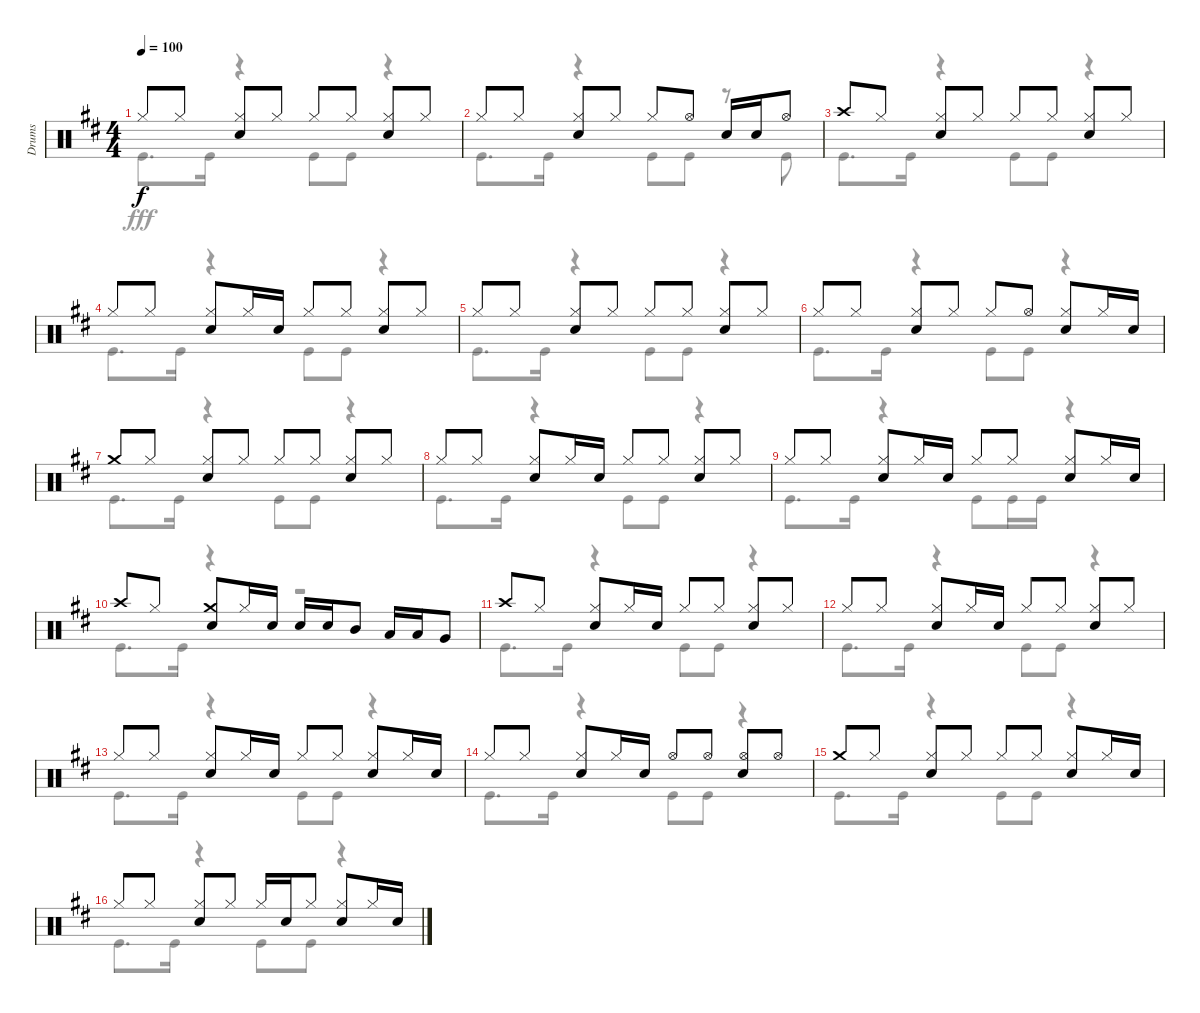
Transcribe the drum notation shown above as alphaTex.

\track ("Drums" "Drums") {instrument percussion}
\staff {score}
\articulation defaults
\voice
\ts (4 4)
\tempo 100
\clef neutral
\ks d "Hi-Hat (closed)".8{dy f} "Hi-Hat (closed)".8
("Hi-Hat (closed)" "Snare (hit) 2").8 "Hi-Hat (closed)".8 "Hi-Hat (closed)".8 "Hi-Hat (closed)".8 ("Hi-Hat (closed)" "Snare (hit) 2").8 "Hi-Hat (closed)".8 |
"Hi-Hat (closed)".8 "Hi-Hat (closed)".8 ("Hi-Hat (closed)" "Snare (hit) 2").8 "Hi-Hat (closed)".8 "Hi-Hat (closed)".8 "Hi-Hat (open)".8 "Snare (hit) 2".16 "Snare (hit) 2".16 "Hi-Hat (open)".8 |
"Crash high (hit)".8 "Hi-Hat (closed)".8 ("Hi-Hat (closed)" "Snare (hit) 2").8 "Hi-Hat (closed)".8 "Hi-Hat (closed)".8 "Hi-Hat (closed)".8 ("Hi-Hat (closed)" "Snare (hit) 2").8 "Hi-Hat (closed)".8 |
"Hi-Hat (closed)".8 "Hi-Hat (closed)".8 ("Hi-Hat (closed)" "Snare (hit) 2").8 "Hi-Hat (closed)".16 "Snare (hit) 2".16 "Hi-Hat (closed)".8 "Hi-Hat (closed)".8 ("Hi-Hat (closed)" "Snare (hit) 2").8 "Hi-Hat (closed)".8 |
"Hi-Hat (closed)".8 "Hi-Hat (closed)".8 ("Hi-Hat (closed)" "Snare (hit) 2").8 "Hi-Hat (closed)".8 "Hi-Hat (closed)".8 "Hi-Hat (closed)".8 ("Hi-Hat (closed)" "Snare (hit) 2").8 "Hi-Hat (closed)".8 |
"Hi-Hat (closed)".8 "Hi-Hat (closed)".8 ("Hi-Hat (closed)" "Snare (hit) 2").8 "Hi-Hat (closed)".8 "Hi-Hat (closed)".8 "Hi-Hat (open)".8 ("Hi-Hat (closed)" "Snare (hit) 2").8 "Hi-Hat (closed)".16 "Snare (hit) 2".16 |
"Crash medium (hit)".8 "Hi-Hat (closed)".8 ("Hi-Hat (closed)" "Snare (hit) 2").8 "Hi-Hat (closed)".8 "Hi-Hat (closed)".8 "Hi-Hat (closed)".8 ("Hi-Hat (closed)" "Snare (hit) 2").8 "Hi-Hat (closed)".8 |
"Hi-Hat (closed)".8 "Hi-Hat (closed)".8 ("Hi-Hat (closed)" "Snare (hit) 2").8 "Hi-Hat (closed)".16 "Snare (hit) 2".16 "Hi-Hat (closed)".8 "Hi-Hat (closed)".8 ("Hi-Hat (closed)" "Snare (hit) 2").8 "Hi-Hat (closed)".8 |
"Hi-Hat (closed)".8 "Hi-Hat (closed)".8 ("Hi-Hat (closed)" "Snare (hit) 2").8 "Hi-Hat (closed)".16 "Snare (hit) 2".16 "Hi-Hat (closed)".8 "Hi-Hat (closed)".8 ("Hi-Hat (closed)" "Snare (hit) 2").8 "Hi-Hat (closed)".16 "Snare (hit) 2".16 |
"Crash high (hit)".8 "Hi-Hat (closed)".8 ("Crash medium (hit)" "Snare (hit) 2").8 "Hi-Hat (closed)".16 "Snare (hit) 2".16 "Snare (hit) 2".16 "Snare (hit) 2".16 "Mid Tom (hit)".8 "Low Tom (hit)".16 "Low Tom (hit)".16 "Very Low Tom (hit)".8 |
"Crash high (hit)".8 "Hi-Hat (closed)".8 ("Hi-Hat (closed)" "Snare (hit) 2").8 "Hi-Hat (closed)".16 "Snare (hit) 2".16 "Hi-Hat (closed)".8 "Hi-Hat (closed)".8 ("Hi-Hat (closed)" "Snare (hit) 2").8 "Hi-Hat (closed)".8 |
"Hi-Hat (closed)".8 "Hi-Hat (closed)".8 ("Hi-Hat (closed)" "Snare (hit) 2").8 "Hi-Hat (closed)".16 "Snare (hit) 2".16 "Hi-Hat (closed)".8 "Hi-Hat (closed)".8 ("Hi-Hat (closed)" "Snare (hit) 2").8 "Hi-Hat (closed)".8 |
"Hi-Hat (closed)".8 "Hi-Hat (closed)".8 ("Hi-Hat (closed)" "Snare (hit) 2").8 "Hi-Hat (closed)".16 "Snare (hit) 2".16 "Hi-Hat (closed)".8 "Hi-Hat (closed)".8 ("Hi-Hat (closed)" "Snare (hit) 2").8 "Hi-Hat (closed)".16 "Snare (hit) 2".16 |
"Hi-Hat (closed)".8 "Hi-Hat (closed)".8 ("Hi-Hat (closed)" "Snare (hit) 2").8 "Hi-Hat (closed)".16 "Snare (hit) 2".16 "Hi-Hat (open)".8 "Hi-Hat (open)".8 ("Hi-Hat (open)" "Snare (hit) 2").8 "Hi-Hat (open)".8 |
"Crash medium (hit)".8 "Hi-Hat (closed)".8 ("Hi-Hat (closed)" "Snare (hit) 2").8 "Hi-Hat (closed)".8 "Hi-Hat (closed)".8 "Hi-Hat (closed)".8 ("Hi-Hat (closed)" "Snare (hit) 2").8 "Hi-Hat (closed)".16 "Snare (hit) 2".16 |
"Hi-Hat (closed)".8 "Hi-Hat (closed)".8 ("Hi-Hat (closed)" "Snare (hit) 2").8 "Hi-Hat (closed)".8 "Hi-Hat (closed)".16 "Snare (hit) 2".16 "Hi-Hat (closed)".8 ("Hi-Hat (closed)" "Snare (hit) 2").8 "Hi-Hat (closed)".16 "Snare (hit) 2".16
\voice
\clef neutral
\ottava regular
\simile none
\ks d "Kick (hit)".8{d dy fff} "Kick (hit)".16
r.4 "Kick (hit)".8 "Kick (hit)".8 r.4 |
"Kick (hit)".8{d} "Kick (hit)".16 r.4 "Kick (hit)".8 "Kick (hit)".8 r.8 "Kick (hit)".8 |
"Kick (hit)".8{d} "Kick (hit)".16 r.4 "Kick (hit)".8 "Kick (hit)".8 r.4 |
"Kick (hit)".8{d} "Kick (hit)".16 r.4 "Kick (hit)".8 "Kick (hit)".8 r.4 |
"Kick (hit)".8{d} "Kick (hit)".16 r.4 "Kick (hit)".8 "Kick (hit)".8 r.4 |
"Kick (hit)".8{d} "Kick (hit)".16 r.4 "Kick (hit)".8 "Kick (hit)".8 r.4 |
"Kick (hit)".8{d} "Kick (hit)".16 r.4 "Kick (hit)".8 "Kick (hit)".8 r.4 |
"Kick (hit)".8{d} "Kick (hit)".16 r.4 "Kick (hit)".8 "Kick (hit)".8 r.4 |
"Kick (hit)".8{d} "Kick (hit)".16 r.4 "Kick (hit)".8 "Kick (hit)".16 "Kick (hit)".16 r.4 |
"Kick (hit)".8{d} "Kick (hit)".16 r.4 r.2 |
"Kick (hit)".8{d} "Kick (hit)".16 r.4 "Kick (hit)".8 "Kick (hit)".8 r.4 |
"Kick (hit)".8{d} "Kick (hit)".16 r.4 "Kick (hit)".8 "Kick (hit)".8 r.4 |
"Kick (hit)".8{d} "Kick (hit)".16 r.4 "Kick (hit)".8 "Kick (hit)".8 r.4 |
"Kick (hit)".8{d} "Kick (hit)".16 r.4 "Kick (hit)".8 "Kick (hit)".8 r.4 |
"Kick (hit)".8{d} "Kick (hit)".16 r.4 "Kick (hit)".8 "Kick (hit)".8 r.4 |
"Kick (hit)".8{d} "Kick (hit)".16 r.4 "Kick (hit)".8 "Kick (hit)".8 r.4
